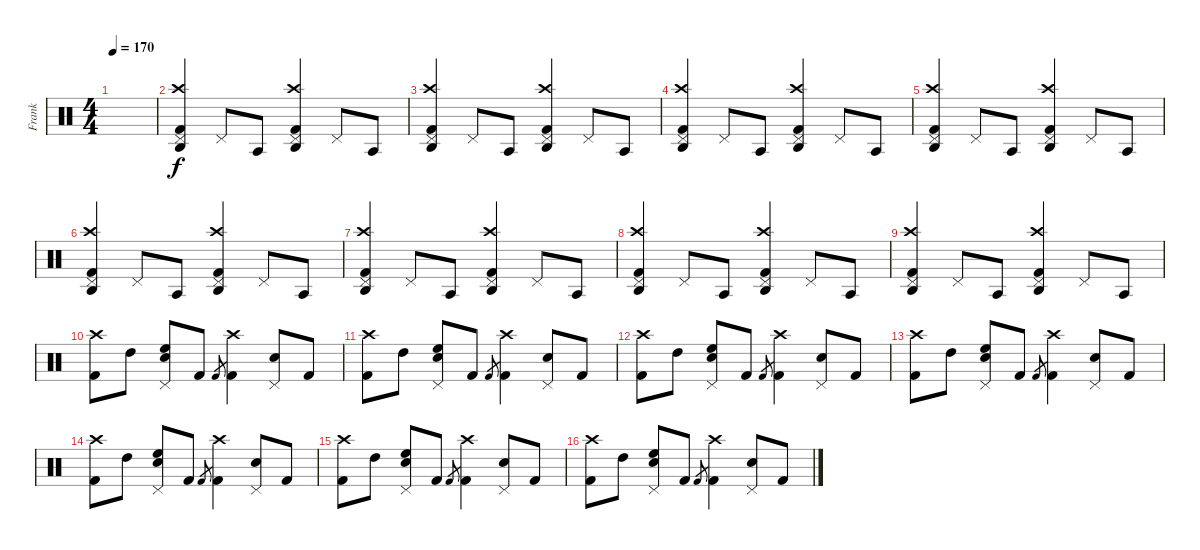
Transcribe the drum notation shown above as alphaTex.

\track ("Frank" "Frank") {instrument percussion}
\staff {score}
\articulation defaults
\ts (4 4)
\tempo 170
\clef neutral
\ks c
|
("Crash high (hit)" "Pedal Hi-Hat (hit)" "Kick (hit) 2" "Agogo high (hit)").4 "Pedal Hi-Hat (hit)".8 "Agogo tow (hit)".8 ("Crash high (hit)" "Pedal Hi-Hat (hit)" "Kick (hit) 2" "Agogo high (hit)").4 "Pedal Hi-Hat (hit)".8 "Agogo tow (hit)".8 |
("Crash high (hit)" "Pedal Hi-Hat (hit)" "Kick (hit) 2" "Agogo high (hit)").4 "Pedal Hi-Hat (hit)".8 "Agogo tow (hit)".8 ("Crash high (hit)" "Pedal Hi-Hat (hit)" "Kick (hit) 2" "Agogo high (hit)").4 "Pedal Hi-Hat (hit)".8 "Agogo tow (hit)".8 |
("Crash high (hit)" "Pedal Hi-Hat (hit)" "Kick (hit) 2" "Agogo high (hit)").4 "Pedal Hi-Hat (hit)".8 "Agogo tow (hit)".8 ("Crash high (hit)" "Pedal Hi-Hat (hit)" "Kick (hit) 2" "Agogo high (hit)").4 "Pedal Hi-Hat (hit)".8 "Agogo tow (hit)".8 |
("Crash high (hit)" "Pedal Hi-Hat (hit)" "Kick (hit) 2" "Agogo high (hit)").4 "Pedal Hi-Hat (hit)".8 "Agogo tow (hit)".8 ("Crash high (hit)" "Pedal Hi-Hat (hit)" "Kick (hit) 2" "Agogo high (hit)").4 "Pedal Hi-Hat (hit)".8 "Agogo tow (hit)".8 |
("Crash high (hit)" "Pedal Hi-Hat (hit)" "Kick (hit) 2" "Agogo high (hit)").4 "Pedal Hi-Hat (hit)".8 "Agogo tow (hit)".8 ("Crash high (hit)" "Pedal Hi-Hat (hit)" "Kick (hit) 2" "Agogo high (hit)").4 "Pedal Hi-Hat (hit)".8 "Agogo tow (hit)".8 |
("Crash high (hit)" "Pedal Hi-Hat (hit)" "Kick (hit) 2" "Agogo high (hit)").4 "Pedal Hi-Hat (hit)".8 "Agogo tow (hit)".8 ("Crash high (hit)" "Pedal Hi-Hat (hit)" "Kick (hit) 2" "Agogo high (hit)").4 "Pedal Hi-Hat (hit)".8 "Agogo tow (hit)".8 |
("Crash high (hit)" "Pedal Hi-Hat (hit)" "Kick (hit) 2" "Agogo high (hit)").4 "Pedal Hi-Hat (hit)".8 "Agogo tow (hit)".8 ("Crash high (hit)" "Pedal Hi-Hat (hit)" "Kick (hit) 2" "Agogo high (hit)").4 "Pedal Hi-Hat (hit)".8 "Agogo tow (hit)".8 |
("Crash high (hit)" "Pedal Hi-Hat (hit)" "Kick (hit) 2" "Agogo high (hit)").4 "Pedal Hi-Hat (hit)".8 "Agogo tow (hit)".8 ("Crash high (hit)" "Pedal Hi-Hat (hit)" "Kick (hit) 2" "Agogo high (hit)").4 "Pedal Hi-Hat (hit)".8 "Agogo tow (hit)".8 |
("Crash high (hit)" "Kick (hit) 2").8 "High Tom (hit)".8 ("Pedal Hi-Hat (hit)" "High Floor Tom (hit)" "Snare (hit) 2").8 "Kick (hit) 2".8 "Kick (hit) 2".8{gr} ("Crash high (hit)" "Kick (hit) 2").4 ("Pedal Hi-Hat (hit)" "Snare (hit) 2").8 "Kick (hit) 2".8 |
("Crash high (hit)" "Kick (hit) 2").8 "High Tom (hit)".8 ("Pedal Hi-Hat (hit)" "High Floor Tom (hit)" "Snare (hit) 2").8 "Kick (hit) 2".8 "Kick (hit) 2".8{gr} ("Crash high (hit)" "Kick (hit) 2").4 ("Pedal Hi-Hat (hit)" "Snare (hit) 2").8 "Kick (hit) 2".8 |
("Crash high (hit)" "Kick (hit) 2").8 "High Tom (hit)".8 ("Pedal Hi-Hat (hit)" "High Floor Tom (hit)" "Snare (hit) 2").8 "Kick (hit) 2".8 "Kick (hit) 2".8{gr} ("Crash high (hit)" "Kick (hit) 2").4 ("Pedal Hi-Hat (hit)" "Snare (hit) 2").8 "Kick (hit) 2".8 |
("Crash high (hit)" "Kick (hit) 2").8 "High Tom (hit)".8 ("Pedal Hi-Hat (hit)" "High Floor Tom (hit)" "Snare (hit) 2").8 "Kick (hit) 2".8 "Kick (hit) 2".8{gr} ("Crash high (hit)" "Kick (hit) 2").4 ("Pedal Hi-Hat (hit)" "Snare (hit) 2").8 "Kick (hit) 2".8 |
("Crash high (hit)" "Kick (hit) 2").8 "High Tom (hit)".8 ("Pedal Hi-Hat (hit)" "High Floor Tom (hit)" "Snare (hit) 2").8 "Kick (hit) 2".8 "Kick (hit) 2".8{gr} ("Crash high (hit)" "Kick (hit) 2").4 ("Pedal Hi-Hat (hit)" "Snare (hit) 2").8 "Kick (hit) 2".8 |
("Crash high (hit)" "Kick (hit) 2").8 "High Tom (hit)".8 ("Pedal Hi-Hat (hit)" "High Floor Tom (hit)" "Snare (hit) 2").8 "Kick (hit) 2".8 "Kick (hit) 2".8{gr} ("Crash high (hit)" "Kick (hit) 2").4 ("Pedal Hi-Hat (hit)" "Snare (hit) 2").8 "Kick (hit) 2".8 |
("Crash high (hit)" "Kick (hit) 2").8 "High Tom (hit)".8 ("Pedal Hi-Hat (hit)" "High Floor Tom (hit)" "Snare (hit) 2").8 "Kick (hit) 2".8 "Kick (hit) 2".8{gr} ("Crash high (hit)" "Kick (hit) 2").4 ("Pedal Hi-Hat (hit)" "Snare (hit) 2").8 "Kick (hit) 2".8
